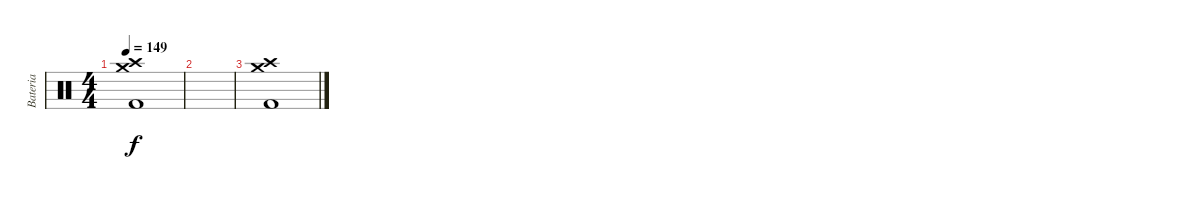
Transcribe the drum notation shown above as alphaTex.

\track ("Bateria" "Bateria") {instrument percussion}
\staff {score}
\articulation defaults
\ts (4 4)
\tempo 149
\clef neutral
\ks c
("Crash high (hit)" "Crash medium (hit)" "Kick (hit) 2").1{dy f} |
|
("Crash high (hit)" "Crash medium (hit)" "Kick (hit) 2").1
